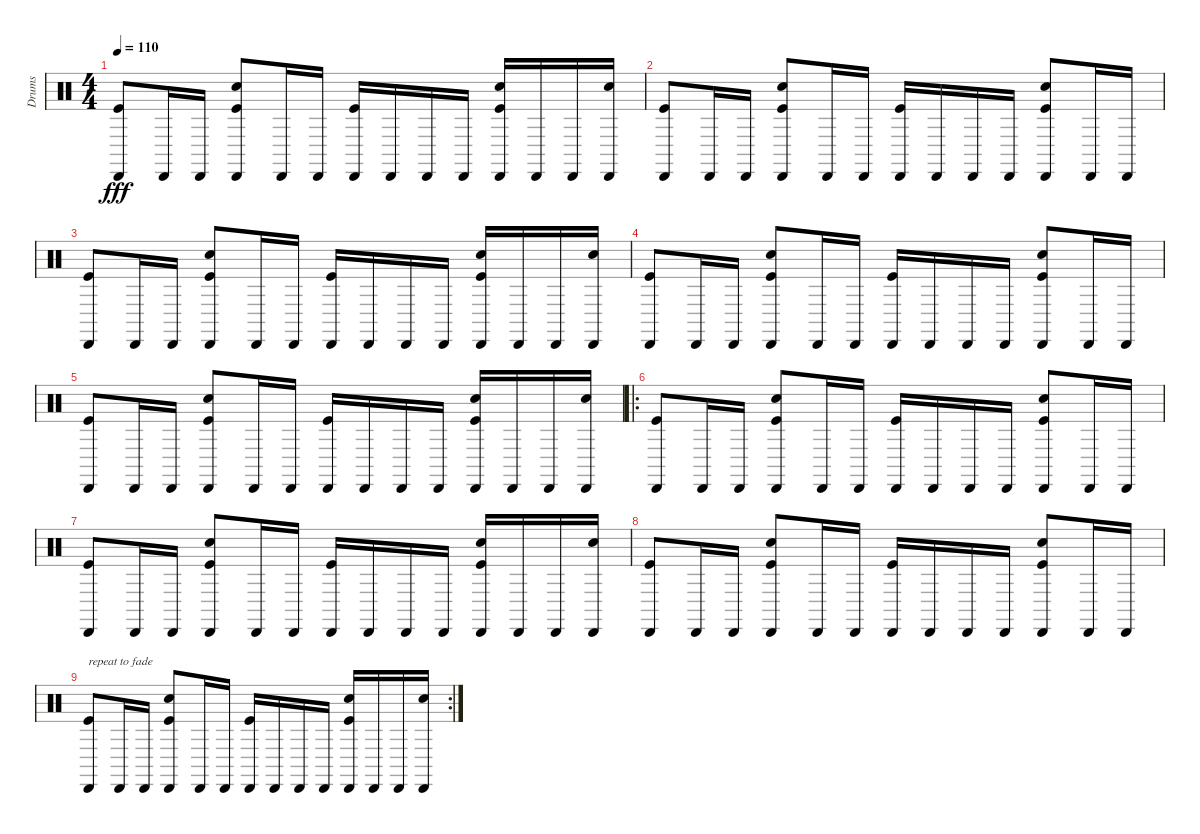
\track ("Drums" "Drums") {instrument percussion}
\staff {score}
\articulation defaults
\ts (4 4)
\tempo 110
\clef neutral
\ks c
("Cabasa (hit)" "Kick (hit)").8{dy fff} "Cabasa (hit)".16 "Cabasa (hit)".16 ("Cabasa (hit)" "Snare (hit) 2" "Kick (hit)").8 "Cabasa (hit)".16 "Cabasa (hit)".16 ("Cabasa (hit)" "Kick (hit)").16 "Cabasa (hit)".16 "Cabasa (hit)".16 "Cabasa (hit)".16 ("Cabasa (hit)" "Snare (hit) 2" "Kick (hit)").16 "Cabasa (hit)".16 "Cabasa (hit)".16 ("Cabasa (hit)" "Snare (hit) 2").16 |
("Cabasa (hit)" "Kick (hit)").8 "Cabasa (hit)".16 "Cabasa (hit)".16 ("Cabasa (hit)" "Snare (hit) 2" "Kick (hit)").8 "Cabasa (hit)".16 "Cabasa (hit)".16 ("Cabasa (hit)" "Kick (hit)").16 "Cabasa (hit)".16 "Cabasa (hit)".16 "Cabasa (hit)".16 ("Cabasa (hit)" "Snare (hit) 2" "Kick (hit)").8 "Cabasa (hit)".16 "Cabasa (hit)".16 |
("Cabasa (hit)" "Kick (hit)").8 "Cabasa (hit)".16 "Cabasa (hit)".16 ("Cabasa (hit)" "Snare (hit) 2" "Kick (hit)").8 "Cabasa (hit)".16 "Cabasa (hit)".16 ("Cabasa (hit)" "Kick (hit)").16 "Cabasa (hit)".16 "Cabasa (hit)".16 "Cabasa (hit)".16 ("Cabasa (hit)" "Snare (hit) 2" "Kick (hit)").16 "Cabasa (hit)".16 "Cabasa (hit)".16 ("Cabasa (hit)" "Snare (hit) 2").16 |
("Cabasa (hit)" "Kick (hit)").8 "Cabasa (hit)".16 "Cabasa (hit)".16 ("Cabasa (hit)" "Snare (hit) 2" "Kick (hit)").8 "Cabasa (hit)".16 "Cabasa (hit)".16 ("Cabasa (hit)" "Kick (hit)").16 "Cabasa (hit)".16 "Cabasa (hit)".16 "Cabasa (hit)".16 ("Cabasa (hit)" "Snare (hit) 2" "Kick (hit)").8 "Cabasa (hit)".16 "Cabasa (hit)".16 |
("Cabasa (hit)" "Kick (hit)").8 "Cabasa (hit)".16 "Cabasa (hit)".16 ("Cabasa (hit)" "Snare (hit) 2" "Kick (hit)").8 "Cabasa (hit)".16 "Cabasa (hit)".16 ("Cabasa (hit)" "Kick (hit)").16 "Cabasa (hit)".16 "Cabasa (hit)".16 "Cabasa (hit)".16 ("Cabasa (hit)" "Snare (hit) 2" "Kick (hit)").16 "Cabasa (hit)".16 "Cabasa (hit)".16 ("Cabasa (hit)" "Snare (hit) 2").16 |
\ro
("Cabasa (hit)" "Kick (hit)").8 "Cabasa (hit)".16 "Cabasa (hit)".16 ("Cabasa (hit)" "Snare (hit) 2" "Kick (hit)").8 "Cabasa (hit)".16 "Cabasa (hit)".16 ("Cabasa (hit)" "Kick (hit)").16 "Cabasa (hit)".16 "Cabasa (hit)".16 "Cabasa (hit)".16 ("Cabasa (hit)" "Snare (hit) 2" "Kick (hit)").8 "Cabasa (hit)".16 "Cabasa (hit)".16 |
("Cabasa (hit)" "Kick (hit)").8 "Cabasa (hit)".16 "Cabasa (hit)".16 ("Cabasa (hit)" "Snare (hit) 2" "Kick (hit)").8 "Cabasa (hit)".16 "Cabasa (hit)".16 ("Cabasa (hit)" "Kick (hit)").16 "Cabasa (hit)".16 "Cabasa (hit)".16 "Cabasa (hit)".16 ("Cabasa (hit)" "Snare (hit) 2" "Kick (hit)").16 "Cabasa (hit)".16 "Cabasa (hit)".16 ("Cabasa (hit)" "Snare (hit) 2").16 |
("Cabasa (hit)" "Kick (hit)").8 "Cabasa (hit)".16 "Cabasa (hit)".16 ("Cabasa (hit)" "Snare (hit) 2" "Kick (hit)").8 "Cabasa (hit)".16 "Cabasa (hit)".16 ("Cabasa (hit)" "Kick (hit)").16 "Cabasa (hit)".16 "Cabasa (hit)".16 "Cabasa (hit)".16 ("Cabasa (hit)" "Snare (hit) 2" "Kick (hit)").8 "Cabasa (hit)".16 "Cabasa (hit)".16 |
\rc 2
("Cabasa (hit)" "Kick (hit)").8{txt "repeat to fade"} "Cabasa (hit)".16 "Cabasa (hit)".16 ("Cabasa (hit)" "Snare (hit) 2" "Kick (hit)").8 "Cabasa (hit)".16 "Cabasa (hit)".16 ("Cabasa (hit)" "Kick (hit)").16 "Cabasa (hit)".16 "Cabasa (hit)".16 "Cabasa (hit)".16 ("Cabasa (hit)" "Snare (hit) 2" "Kick (hit)").16 "Cabasa (hit)".16 "Cabasa (hit)".16 ("Cabasa (hit)" "Snare (hit) 2").16
